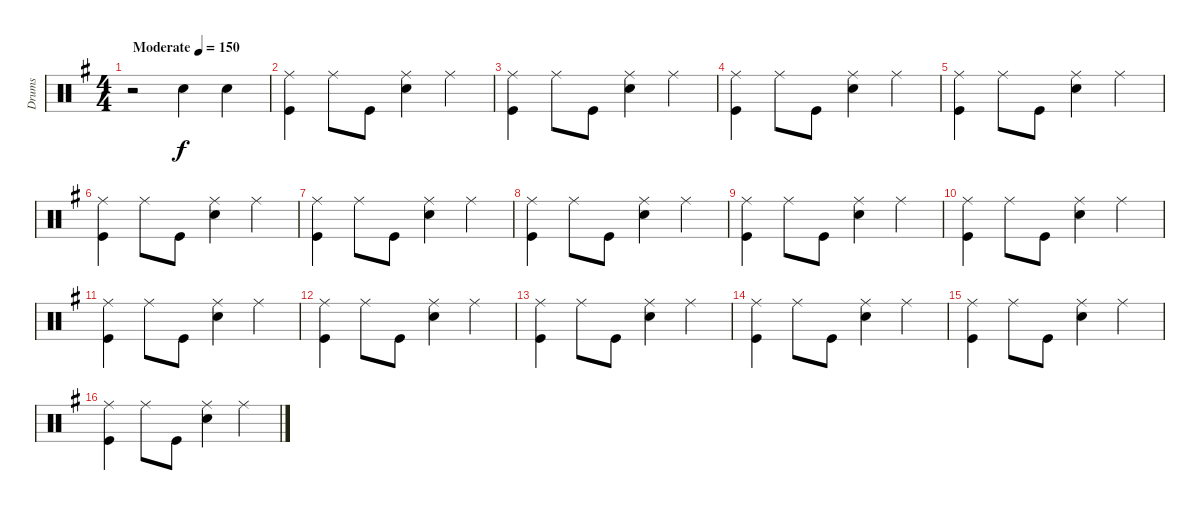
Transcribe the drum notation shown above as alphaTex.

\track ("Drums" "Drums") {instrument percussion}
\staff {score}
\articulation defaults
\ts (4 4)
\tempo (150 "Moderate")
\clef neutral
\ks g
r.2{dy f} "Snare (hit) 2".4 "Snare (hit) 2".4 |
("Ride (middle)" "Kick (hit)").4 "Ride (middle)".8 "Kick (hit)".8 ("Ride (middle)" "Snare (hit) 2").4 "Ride (middle)".4 |
("Ride (middle)" "Kick (hit)").4 "Ride (middle)".8 "Kick (hit)".8 ("Ride (middle)" "Snare (hit) 2").4 "Ride (middle)".4 |
("Ride (middle)" "Kick (hit)").4 "Ride (middle)".8 "Kick (hit)".8 ("Ride (middle)" "Snare (hit) 2").4 "Ride (middle)".4 |
("Ride (middle)" "Kick (hit)").4 "Ride (middle)".8 "Kick (hit)".8 ("Ride (middle)" "Snare (hit) 2").4 "Ride (middle)".4 |
("Ride (middle)" "Kick (hit)").4 "Ride (middle)".8 "Kick (hit)".8 ("Ride (middle)" "Snare (hit) 2").4 "Ride (middle)".4 |
("Ride (middle)" "Kick (hit)").4 "Ride (middle)".8 "Kick (hit)".8 ("Ride (middle)" "Snare (hit) 2").4 "Ride (middle)".4 |
("Ride (middle)" "Kick (hit)").4 "Ride (middle)".8 "Kick (hit)".8 ("Ride (middle)" "Snare (hit) 2").4 "Ride (middle)".4 |
("Ride (middle)" "Kick (hit)").4 "Ride (middle)".8 "Kick (hit)".8 ("Ride (middle)" "Snare (hit) 2").4 "Ride (middle)".4 |
("Ride (middle)" "Kick (hit)").4 "Ride (middle)".8 "Kick (hit)".8 ("Ride (middle)" "Snare (hit) 2").4 "Ride (middle)".4 |
("Ride (middle)" "Kick (hit)").4 "Ride (middle)".8 "Kick (hit)".8 ("Ride (middle)" "Snare (hit) 2").4 "Ride (middle)".4 |
("Ride (middle)" "Kick (hit)").4 "Ride (middle)".8 "Kick (hit)".8 ("Ride (middle)" "Snare (hit) 2").4 "Ride (middle)".4 |
("Ride (middle)" "Kick (hit)").4 "Ride (middle)".8 "Kick (hit)".8 ("Ride (middle)" "Snare (hit) 2").4 "Ride (middle)".4 |
("Ride (middle)" "Kick (hit)").4 "Ride (middle)".8 "Kick (hit)".8 ("Ride (middle)" "Snare (hit) 2").4 "Ride (middle)".4 |
("Ride (middle)" "Kick (hit)").4 "Ride (middle)".8 "Kick (hit)".8 ("Ride (middle)" "Snare (hit) 2").4 "Ride (middle)".4 |
("Ride (middle)" "Kick (hit)").4 "Ride (middle)".8 "Kick (hit)".8 ("Ride (middle)" "Snare (hit) 2").4 "Ride (middle)".4
